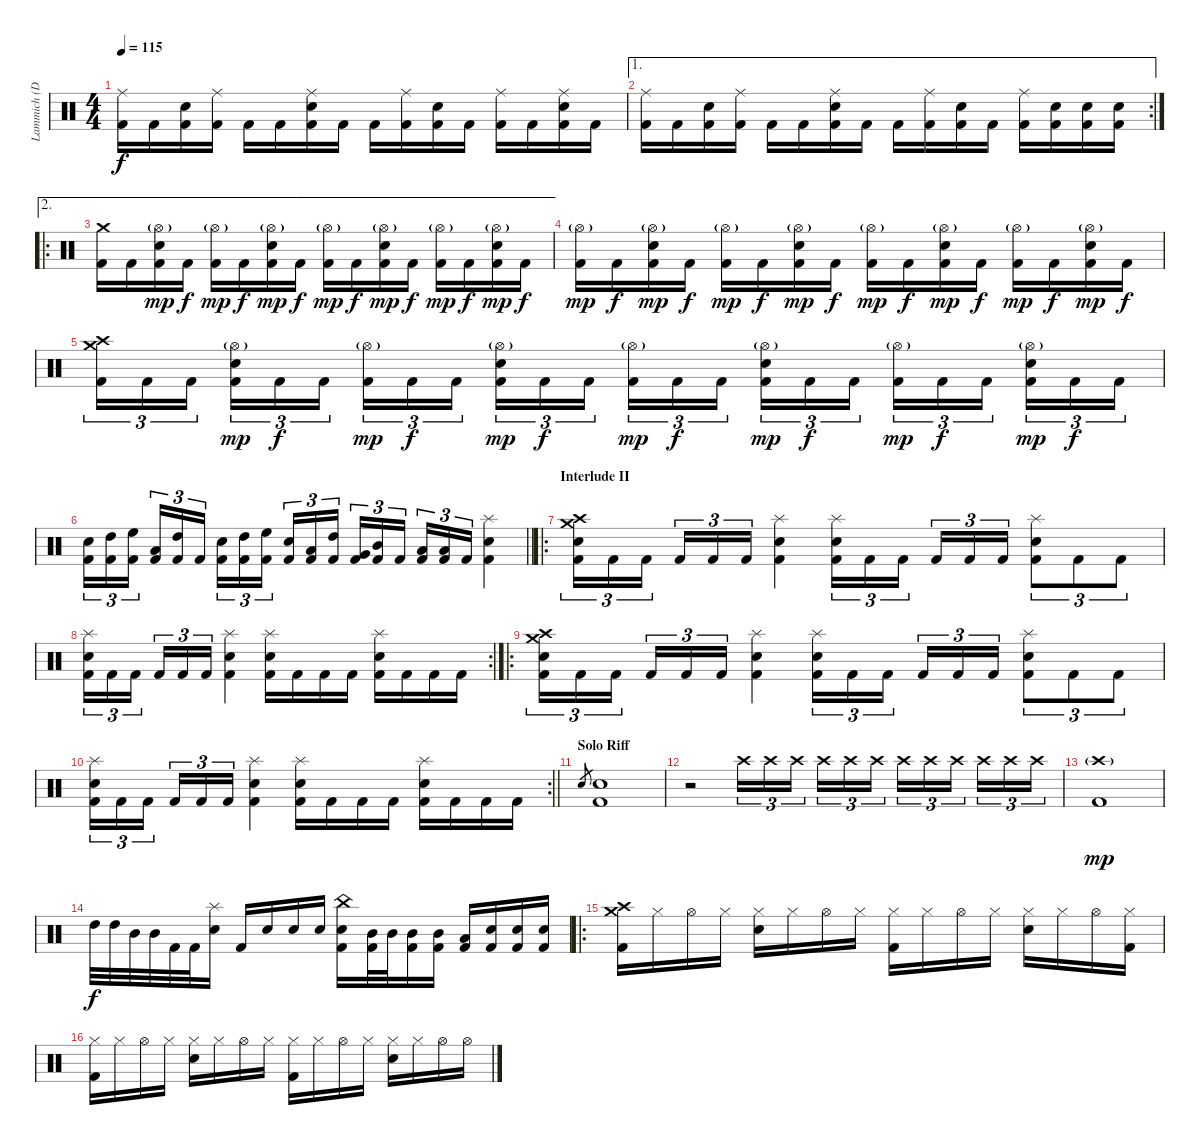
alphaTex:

\track ("Lammich (Drums)" "Lammich (D") {instrument percussion}
\staff {score}
\articulation defaults
\ts (4 4)
\tempo 115
\clef neutral
\ks c
("Ride (middle)" "Kick (hit) 2").16{dy f} "Kick (hit) 2".16 ("Electric Snare (hit)" "Kick (hit) 2").16 ("Ride (middle)" "Kick (hit) 2").16 "Kick (hit) 2".16 "Kick (hit) 2".16 ("Ride (middle)" "Electric Snare (hit)" "Kick (hit) 2").16 "Kick (hit) 2".16 "Kick (hit) 2".16 ("Ride (middle)" "Kick (hit) 2").16 ("Electric Snare (hit)" "Kick (hit) 2").16 "Kick (hit) 2".16 ("Ride (middle)" "Kick (hit) 2").16 "Kick (hit) 2".16 ("Ride (middle)" "Electric Snare (hit)" "Kick (hit) 2").16 "Kick (hit) 2".16 |
\ae 1
\rc 2
("Ride (middle)" "Kick (hit) 2").16 "Kick (hit) 2".16 ("Electric Snare (hit)" "Kick (hit) 2").16 ("Ride (middle)" "Kick (hit) 2").16 "Kick (hit) 2".16 "Kick (hit) 2".16 ("Ride (middle)" "Electric Snare (hit)" "Kick (hit) 2").16 "Kick (hit) 2".16 "Kick (hit) 2".16 ("Ride (middle)" "Kick (hit) 2").16 ("Electric Snare (hit)" "Kick (hit) 2").16 "Kick (hit) 2".16 ("Ride (middle)" "Kick (hit) 2").16 ("Electric Snare (hit)" "Kick (hit) 2").16 ("Electric Snare (hit)" "Kick (hit) 2").16 ("Electric Snare (hit)" "Kick (hit) 2").16 |
\ae 2
\ro
("Crash medium (hit)" "Kick (hit) 2").16 "Kick (hit) 2".16 ("Hi-Hat (open)"{g} "Electric Snare (hit)" "Kick (hit) 2").16{dy mp} "Kick (hit) 2".16{dy f} ("Hi-Hat (open)"{g} "Kick (hit) 2").16{dy mp} "Kick (hit) 2".16{dy f} ("Hi-Hat (open)"{g} "Electric Snare (hit)" "Kick (hit) 2").16{dy mp} "Kick (hit) 2".16{dy f} ("Hi-Hat (open)"{g} "Kick (hit) 2").16{dy mp} "Kick (hit) 2".16{dy f} ("Hi-Hat (open)"{g} "Electric Snare (hit)" "Kick (hit) 2").16{dy mp} "Kick (hit) 2".16{dy f} ("Hi-Hat (open)"{g} "Kick (hit) 2").16{dy mp} "Kick (hit) 2".16{dy f} ("Hi-Hat (open)"{g} "Electric Snare (hit)" "Kick (hit) 2").16{dy mp} "Kick (hit) 2".16{dy f} |
("Hi-Hat (open)"{g} "Kick (hit) 2").16{dy mp} "Kick (hit) 2".16{dy f} ("Hi-Hat (open)"{g} "Electric Snare (hit)" "Kick (hit) 2").16{dy mp} "Kick (hit) 2".16{dy f} ("Hi-Hat (open)"{g} "Kick (hit) 2").16{dy mp} "Kick (hit) 2".16{dy f} ("Hi-Hat (open)"{g} "Electric Snare (hit)" "Kick (hit) 2").16{dy mp} "Kick (hit) 2".16{dy f} ("Hi-Hat (open)"{g} "Kick (hit) 2").16{dy mp} "Kick (hit) 2".16{dy f} ("Hi-Hat (open)"{g} "Electric Snare (hit)" "Kick (hit) 2").16{dy mp} "Kick (hit) 2".16{dy f} ("Hi-Hat (open)"{g} "Kick (hit) 2").16{dy mp} "Kick (hit) 2".16{dy f} ("Hi-Hat (open)"{g} "Electric Snare (hit)" "Kick (hit) 2").16{dy mp} "Kick (hit) 2".16{dy f} |
("Crash medium (hit)" "Crash high (hit)" "Kick (hit) 2").16{tu (3 2)} "Kick (hit) 2".16{tu (3 2)} "Kick (hit) 2".16{tu (3 2) beam splitsecondary} ("Hi-Hat (open)"{g} "Electric Snare (hit)" "Kick (hit) 2").16{tu (3 2) dy mp} "Kick (hit) 2".16{tu (3 2) dy f} "Kick (hit) 2".16{tu (3 2)} ("Hi-Hat (open)"{g} "Kick (hit) 2").16{tu (3 2) dy mp} "Kick (hit) 2".16{tu (3 2) dy f} "Kick (hit) 2".16{tu (3 2) beam splitsecondary} ("Hi-Hat (open)"{g} "Electric Snare (hit)" "Kick (hit) 2").16{tu (3 2) dy mp} "Kick (hit) 2".16{tu (3 2) dy f} "Kick (hit) 2".16{tu (3 2)} ("Hi-Hat (open)"{g} "Kick (hit) 2").16{tu (3 2) dy mp} "Kick (hit) 2".16{tu (3 2) dy f} "Kick (hit) 2".16{tu (3 2) beam splitsecondary} ("Hi-Hat (open)"{g} "Electric Snare (hit)" "Kick (hit) 2").16{tu (3 2) dy mp} "Kick (hit) 2".16{tu (3 2) dy f} "Kick (hit) 2".16{tu (3 2)} ("Hi-Hat (open)"{g} "Kick (hit) 2").16{tu (3 2) dy mp} "Kick (hit) 2".16{tu (3 2) dy f} "Kick (hit) 2".16{tu (3 2) beam splitsecondary} ("Hi-Hat (open)"{g} "Electric Snare (hit)" "Kick (hit) 2").16{tu (3 2) dy mp} "Kick (hit) 2".16{tu (3 2) dy f} "Kick (hit) 2".16{tu (3 2)} |
\barLineRight lightlight
("Electric Snare (hit)" "Kick (hit) 2").16{tu (3 2)} ("High Tom (hit)" "Kick (hit) 2").16{tu (3 2)} ("High Floor Tom (hit)" "Kick (hit) 2").16{tu (3 2) beam splitsecondary} ("Low Tom (hit)" "Kick (hit) 2").16{tu (3 2)} ("High Tom (hit)" "Kick (hit) 2").16{tu (3 2)} "Kick (hit) 2".16{tu (3 2)} ("Electric Snare (hit)" "Kick (hit) 2").16{tu (3 2)} ("High Tom (hit)" "Kick (hit) 2").16{tu (3 2)} ("High Floor Tom (hit)" "Kick (hit) 2").16{tu (3 2) beam splitsecondary} ("Electric Snare (hit)" "Kick (hit) 2").16{tu (3 2)} ("Low Tom (hit)" "Kick (hit) 2").16{tu (3 2)} ("High Tom (hit)" "Kick (hit) 2").16{tu (3 2)} ("Very Low Tom (hit)" "Kick (hit) 2").16{tu (3 2)} ("Mid Tom (hit)" "Kick (hit) 2").16{tu (3 2)} "Kick (hit) 2".16{tu (3 2) beam splitsecondary} ("Low Floor Tom (hit)" "Kick (hit) 2").16{tu (3 2)} ("Low Tom (hit)" "Kick (hit) 2").16{tu (3 2)} "Kick (hit) 2".16{tu (3 2)} ("Splash (hit)" "Electric Snare (hit)" "Kick (hit) 2").4 |
\ro
\section ("" "Interlude II")
("Crash medium (hit)" "Crash high (hit)" "Electric Snare (hit)" "Kick (hit) 2").16{tu (3 2)} "Kick (hit) 2".16{tu (3 2)} "Kick (hit) 2".16{tu (3 2) beam splitsecondary} "Kick (hit) 2".16{tu (3 2)} "Kick (hit) 2".16{tu (3 2)} "Kick (hit) 2".16{tu (3 2)} ("Splash (hit)" "Electric Snare (hit)" "Kick (hit) 2").4 ("Splash (hit)" "Electric Snare (hit)" "Kick (hit) 2").16{tu (3 2)} "Kick (hit) 2".16{tu (3 2)} "Kick (hit) 2".16{tu (3 2) beam splitsecondary} "Kick (hit) 2".16{tu (3 2)} "Kick (hit) 2".16{tu (3 2)} "Kick (hit) 2".16{tu (3 2)} ("Splash (hit)" "Electric Snare (hit)" "Kick (hit) 2").8{tu (3 2)} "Kick (hit) 2".8{tu (3 2)} "Kick (hit) 2".8{tu (3 2)} |
\rc 2
("Splash (hit)" "Electric Snare (hit)" "Kick (hit) 2").16{tu (3 2)} "Kick (hit) 2".16{tu (3 2)} "Kick (hit) 2".16{tu (3 2) beam splitsecondary} "Kick (hit) 2".16{tu (3 2)} "Kick (hit) 2".16{tu (3 2)} "Kick (hit) 2".16{tu (3 2)} ("Splash (hit)" "Electric Snare (hit)" "Kick (hit) 2").4 ("Splash (hit)" "Electric Snare (hit)" "Kick (hit) 2").16 "Kick (hit) 2".16 "Kick (hit) 2".16 "Kick (hit) 2".16 ("Splash (hit)" "Electric Snare (hit)" "Kick (hit) 2").16 "Kick (hit) 2".16 "Kick (hit) 2".16 "Kick (hit) 2".16 |
\ro
("Crash medium (hit)" "Crash high (hit)" "Electric Snare (hit)" "Kick (hit) 2").16{tu (3 2)} "Kick (hit) 2".16{tu (3 2)} "Kick (hit) 2".16{tu (3 2) beam splitsecondary} "Kick (hit) 2".16{tu (3 2)} "Kick (hit) 2".16{tu (3 2)} "Kick (hit) 2".16{tu (3 2)} ("Splash (hit)" "Electric Snare (hit)" "Kick (hit) 2").4 ("Splash (hit)" "Electric Snare (hit)" "Kick (hit) 2").16{tu (3 2)} "Kick (hit) 2".16{tu (3 2)} "Kick (hit) 2".16{tu (3 2) beam splitsecondary} "Kick (hit) 2".16{tu (3 2)} "Kick (hit) 2".16{tu (3 2)} "Kick (hit) 2".16{tu (3 2)} ("Splash (hit)" "Electric Snare (hit)" "Kick (hit) 2").8{tu (3 2)} "Kick (hit) 2".8{tu (3 2)} "Kick (hit) 2".8{tu (3 2)} |
\rc 2
\barLineRight lightlight
("Splash (hit)" "Electric Snare (hit)" "Kick (hit) 2").16{tu (3 2)} "Kick (hit) 2".16{tu (3 2)} "Kick (hit) 2".16{tu (3 2) beam splitsecondary} "Kick (hit) 2".16{tu (3 2)} "Kick (hit) 2".16{tu (3 2)} "Kick (hit) 2".16{tu (3 2)} ("Splash (hit)" "Electric Snare (hit)" "Kick (hit) 2").4 ("Splash (hit)" "Electric Snare (hit)" "Kick (hit) 2").16 "Kick (hit) 2".16 "Kick (hit) 2".16 "Kick (hit) 2".16 ("Splash (hit)" "Electric Snare (hit)" "Kick (hit) 2").16 "Kick (hit) 2".16 "Kick (hit) 2".16 "Kick (hit) 2".16 |
\section ("" "Solo Riff")
"Electric Snare (hit)".8{gr} ("Electric Snare (hit)" "Kick (hit) 2").1 |
r.2{volume 0} "Crash high (hit)".16{tu (3 2) volume 10} "Crash high (hit)".16{tu (3 2)} "Crash high (hit)".16{tu (3 2) beam splitsecondary} "Crash high (hit)".16{tu (3 2)} "Crash high (hit)".16{tu (3 2)} "Crash high (hit)".16{tu (3 2)} "Crash high (hit)".16{tu (3 2)} "Crash high (hit)".16{tu (3 2)} "Crash high (hit)".16{tu (3 2) beam splitsecondary} "Crash high (hit)".16{tu (3 2)} "Crash high (hit)".16{tu (3 2)} "Crash high (hit)".16{tu (3 2)} |
("Crash high (hit)"{g} "Kick (hit) 2").1{dy mp} |
"High Tom (hit)".32{dy f volume 16 balance 8} "High Tom (hit)".32 "Mid Tom (hit)".32 "Mid Tom (hit)".32 "Kick (hit) 2".32 "Kick (hit) 2".32 ("Splash (hit)" "Electric Snare (hit)").16 "Kick (hit) 2".16 "Electric Snare (hit)".16 "Electric Snare (hit)".16 "Electric Snare (hit)".16 ("China (hit)" "Electric Snare (hit)" "Kick (hit) 2").16 ("Mid Tom (hit)" "Kick (hit) 2").32 "Mid Tom (hit)".32 ("Mid Tom (hit)" "Kick (hit) 2").16 ("Mid Tom (hit)" "Kick (hit) 2").16 ("Low Tom (hit)" "Kick (hit) 2").16 ("Electric Snare (hit)" "Kick (hit) 2").16 ("Electric Snare (hit)" "Kick (hit) 2").16 ("Electric Snare (hit)" "Kick (hit) 2").16 |
\ro
("Crash medium (hit)" "Crash high (hit)" "Kick (hit) 2").16 "Hi-Hat (closed)".16 "Hi-Hat (open)".16 "Hi-Hat (closed)".16 ("Hi-Hat (closed)" "Electric Snare (hit)").16 "Hi-Hat (closed)".16 "Hi-Hat (open)".16 "Hi-Hat (closed)".16 ("Hi-Hat (closed)" "Kick (hit) 2").16 "Hi-Hat (closed)".16 "Hi-Hat (open)".16 "Hi-Hat (closed)".16 ("Hi-Hat (closed)" "Electric Snare (hit)").16 "Hi-Hat (closed)".16 "Hi-Hat (open)".16 ("Hi-Hat (closed)" "Kick (hit) 2").16 |
("Hi-Hat (closed)" "Kick (hit) 2").16 "Hi-Hat (closed)".16 "Hi-Hat (open)".16 "Hi-Hat (closed)".16 ("Hi-Hat (closed)" "Electric Snare (hit)").16 "Hi-Hat (closed)".16 "Hi-Hat (open)".16 "Hi-Hat (closed)".16 ("Hi-Hat (closed)" "Kick (hit) 2").16 "Hi-Hat (closed)".16 "Hi-Hat (open)".16 "Hi-Hat (closed)".16 ("Hi-Hat (closed)" "Electric Snare (hit)").16 "Hi-Hat (closed)".16 "Hi-Hat (open)".16 "Hi-Hat (open)".16
